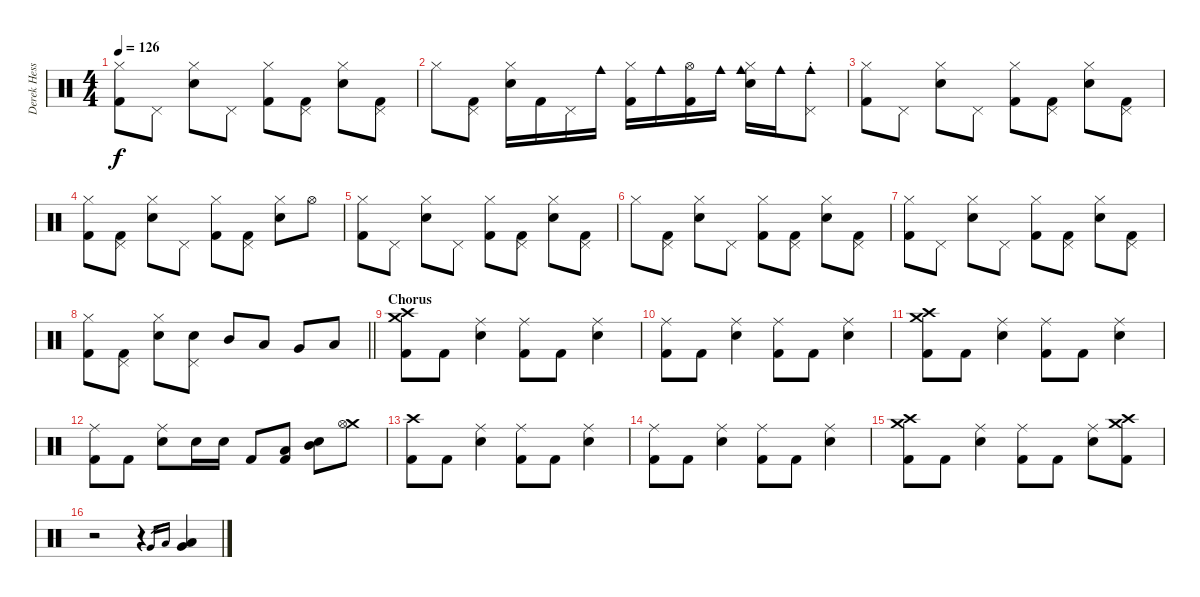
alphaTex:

\track ("Derek Hess - Drums and Percussion" "Derek Hess") {instrument percussion}
\staff {score}
\articulation defaults
\ts (4 4)
\tempo 126
\clef neutral
\ks c
("Hi-Hat (closed)" "Kick (hit) 2").8{dy f} "Pedal Hi-Hat (hit)".8 ("Snare (hit) 2" "Hi-Hat (closed)").8 "Pedal Hi-Hat (hit)".8 ("Hi-Hat (closed)" "Kick (hit) 2").8 ("Pedal Hi-Hat (hit)" "Kick (hit) 2").8 ("Snare (hit) 2" "Hi-Hat (closed)").8 ("Pedal Hi-Hat (hit)" "Kick (hit) 2").8 |
"Hi-Hat (closed)".8 ("Pedal Hi-Hat (hit)" "Kick (hit) 2").8 ("Snare (hit) 2" "Hi-Hat (closed)").16 "Kick (hit) 2".16 "Pedal Hi-Hat (hit)".16 "Cowbell medium (hit)".16 ("Hi-Hat (closed)" "Kick (hit) 2").16 "Cowbell medium (hit)".16 ("Hi-Hat (open)" "Kick (hit) 2").16 "Cowbell medium (hit)".16 ("Snare (hit) 2" "Hi-Hat (closed)" "Cowbell medium (hit)").16 "Cowbell medium (hit)".16 ("Pedal Hi-Hat (hit)" "Cowbell medium (hit)"{st}).8 |
("Hi-Hat (closed)" "Kick (hit) 2").8 "Pedal Hi-Hat (hit)".8 ("Snare (hit) 2" "Hi-Hat (closed)").8 "Pedal Hi-Hat (hit)".8 ("Hi-Hat (closed)" "Kick (hit) 2").8 ("Pedal Hi-Hat (hit)" "Kick (hit) 2").8 ("Snare (hit) 2" "Hi-Hat (closed)").8 ("Pedal Hi-Hat (hit)" "Kick (hit) 2").8 |
("Hi-Hat (closed)" "Kick (hit) 2").8 ("Pedal Hi-Hat (hit)" "Kick (hit) 2").8 ("Snare (hit) 2" "Hi-Hat (closed)").8 "Pedal Hi-Hat (hit)".8 ("Hi-Hat (closed)" "Kick (hit) 2").8 ("Pedal Hi-Hat (hit)" "Kick (hit) 2").8 ("Snare (hit) 2" "Hi-Hat (closed)").8 "Hi-Hat (open)".8 |
("Hi-Hat (closed)" "Kick (hit) 2").8 "Pedal Hi-Hat (hit)".8 ("Snare (hit) 2" "Hi-Hat (closed)").8 "Pedal Hi-Hat (hit)".8 ("Hi-Hat (closed)" "Kick (hit) 2").8 ("Pedal Hi-Hat (hit)" "Kick (hit) 2").8 ("Snare (hit) 2" "Hi-Hat (closed)").8 ("Pedal Hi-Hat (hit)" "Kick (hit) 2").8 |
"Hi-Hat (closed)".8 ("Pedal Hi-Hat (hit)" "Kick (hit) 2").8 ("Snare (hit) 2" "Hi-Hat (closed)").8 "Pedal Hi-Hat (hit)".8 ("Hi-Hat (closed)" "Kick (hit) 2").8 ("Pedal Hi-Hat (hit)" "Kick (hit) 2").8 ("Snare (hit) 2" "Hi-Hat (closed)").8 ("Pedal Hi-Hat (hit)" "Kick (hit) 2").8 |
("Hi-Hat (closed)" "Kick (hit) 2").8 "Pedal Hi-Hat (hit)".8 ("Snare (hit) 2" "Hi-Hat (closed)").8 "Pedal Hi-Hat (hit)".8 ("Hi-Hat (closed)" "Kick (hit) 2").8 ("Pedal Hi-Hat (hit)" "Kick (hit) 2").8 ("Snare (hit) 2" "Hi-Hat (closed)").8 ("Pedal Hi-Hat (hit)" "Kick (hit) 2").8 |
\barLineRight lightlight
("Hi-Hat (closed)" "Kick (hit) 2").8 ("Pedal Hi-Hat (hit)" "Kick (hit) 2").8 ("Snare (hit) 2" "Hi-Hat (closed)").8 ("Snare (hit) 2" "Pedal Hi-Hat (hit)").8 "Mid Tom (hit)".8 "Low Tom (hit)".8 "Very Low Tom (hit)".8 "Low Floor Tom (hit)".8 |
\section ("" "Chorus")
("Crash high (hit)" "Crash medium (hit)" "Kick (hit) 2").8 "Kick (hit) 2".8 ("Ride (middle)" "Snare (hit) 2").4 ("Ride (middle)" "Kick (hit) 2").8 "Kick (hit) 2".8 ("Ride (middle)" "Snare (hit) 2").4 |
("Ride (middle)" "Kick (hit) 2").8 "Kick (hit) 2".8 ("Ride (middle)" "Snare (hit) 2").4 ("Ride (middle)" "Kick (hit) 2").8 "Kick (hit) 2".8 ("Ride (middle)" "Snare (hit) 2").4 |
("Crash high (hit)" "Crash medium (hit)" "Kick (hit) 2").8 "Kick (hit) 2".8 ("Ride (middle)" "Snare (hit) 2").4 ("Ride (middle)" "Kick (hit) 2").8 "Kick (hit) 2".8 ("Ride (middle)" "Snare (hit) 2").4 |
("Ride (middle)" "Kick (hit) 2").8 "Kick (hit) 2".8 ("Ride (middle)" "Snare (hit) 2").8 "Snare (hit) 2".16 "Snare (hit) 2".16 "Kick (hit) 2".8 ("Low Tom (hit)" "Kick (hit) 2").8 ("Snare (hit) 2" "Mid Tom (hit)").8 ("Crash medium (hit)" "Hi-Hat (open)").8 |
("Crash high (hit)" "Kick (hit) 2").8 "Kick (hit) 2".8 ("Ride (middle)" "Snare (hit) 2").4 ("Ride (middle)" "Kick (hit) 2").8 "Kick (hit) 2".8 ("Ride (middle)" "Snare (hit) 2").4 |
("Ride (middle)" "Kick (hit) 2").8 "Kick (hit) 2".8 ("Ride (middle)" "Snare (hit) 2").4 ("Ride (middle)" "Kick (hit) 2").8 "Kick (hit) 2".8 ("Ride (middle)" "Snare (hit) 2").4 |
("Crash high (hit)" "Crash medium (hit)" "Kick (hit) 2").8 "Kick (hit) 2".8 ("Ride (middle)" "Snare (hit) 2").4 ("Ride (middle)" "Kick (hit) 2").8 "Kick (hit) 2".8 ("Ride (middle)" "Snare (hit) 2").8 ("Crash medium (hit)" "Crash high (hit)" "Kick (hit) 2").8 |
r.2 r.4 "Very Low Tom (hit)".16{gr} "Low Floor Tom (hit)".16{gr} ("Very Low Tom (hit)" "Low Floor Tom (hit)").4
